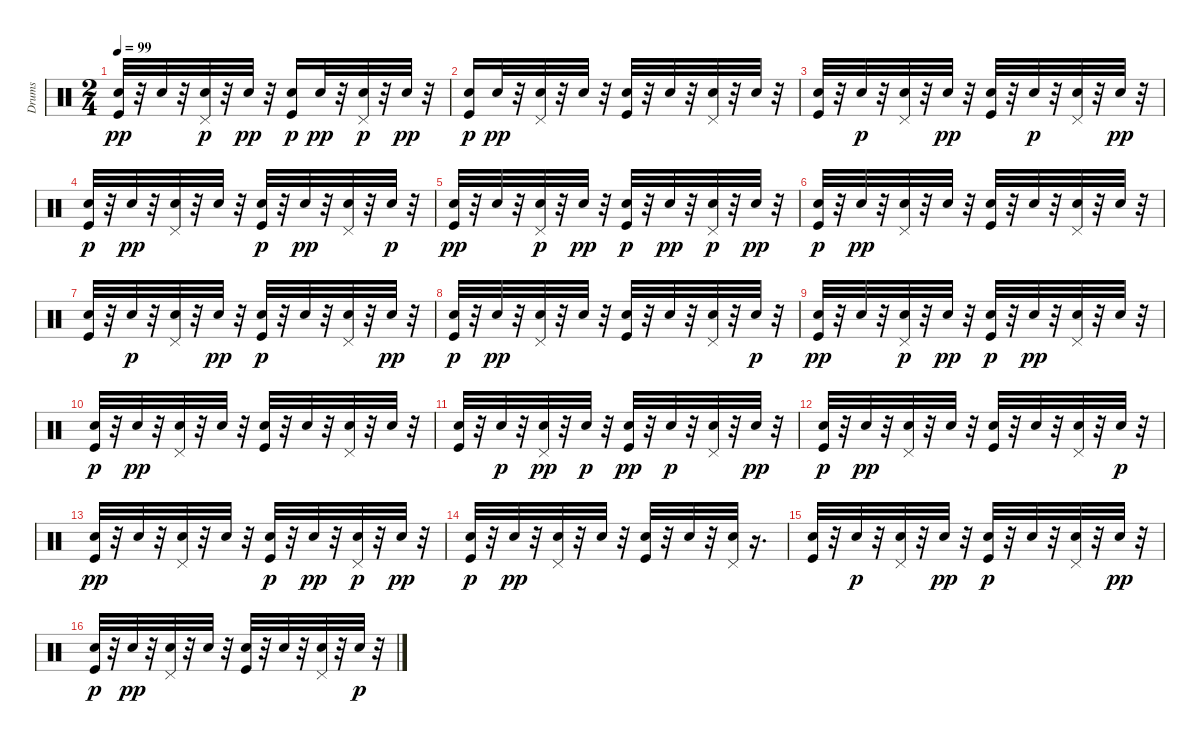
\track ("Drums" "Drums") {instrument percussion}
\staff {score}
\articulation defaults
\ts (2 4)
\tempo 99
\clef neutral
\ks c
("Kick (hit)" "Hand Clap (hit)").32{dy pp} r.32 "Snare (hit) 2".32 r.32 ("Pedal Hi-Hat (hit)" "Snare (hit) 2").32{dy p} r.32 "Snare (hit) 2".32{dy pp} r.32 ("Hand Clap (hit)" "Kick (hit)").16{dy p} "Snare (hit) 2".32{dy pp} r.32 ("Pedal Hi-Hat (hit)" "Snare (hit) 2").32{dy p} r.32 "Snare (hit) 2".32{dy pp} r.32 |
("Hand Clap (hit)" "Kick (hit)").16{dy p} "Snare (hit) 2".32{dy pp} r.32 ("Pedal Hi-Hat (hit)" "Snare (hit) 2").32 r.32 "Hand Clap (hit)".32 r.32 ("Kick (hit)" "Hand Clap (hit)").32 r.32 "Snare (hit) 2".32 r.32 ("Hand Clap (hit)" "Pedal Hi-Hat (hit)").32 r.32 "Hand Clap (hit)".32 r.32 |
("Kick (hit)" "Hand Clap (hit)").32 r.32 "Snare (hit) 2".32{dy p} r.32 ("Pedal Hi-Hat (hit)" "Snare (hit) 2").32 r.32 "Hand Clap (hit)".32{dy pp} r.32 ("Kick (hit)" "Snare (hit) 2").32 r.32 "Snare (hit) 2".32{dy p} r.32 ("Pedal Hi-Hat (hit)" "Snare (hit) 2").32 r.32 "Hand Clap (hit)".32{dy pp} r.32 |
("Hand Clap (hit)" "Kick (hit)").32{dy p} r.32 "Snare (hit) 2".32{dy pp} r.32 ("Pedal Hi-Hat (hit)" "Snare (hit) 2").32 r.32 "Hand Clap (hit)".32 r.32 ("Hand Clap (hit)" "Kick (hit)").32{dy p} r.32 "Snare (hit) 2".32{dy pp} r.32 ("Pedal Hi-Hat (hit)" "Hand Clap (hit)").32 r.32 "Snare (hit) 2".32{dy p} r.32 |
("Kick (hit)" "Hand Clap (hit)").32{dy pp} r.32 "Snare (hit) 2".32 r.32 ("Pedal Hi-Hat (hit)" "Snare (hit) 2").32{dy p} r.32 "Snare (hit) 2".32{dy pp} r.32 ("Hand Clap (hit)" "Kick (hit)").32{dy p} r.32 "Snare (hit) 2".32{dy pp} r.32 ("Pedal Hi-Hat (hit)" "Snare (hit) 2").32{dy p} r.32 "Snare (hit) 2".32{dy pp} r.32 |
("Hand Clap (hit)" "Kick (hit)").32{dy p} r.32 "Snare (hit) 2".32{dy pp} r.32 ("Pedal Hi-Hat (hit)" "Snare (hit) 2").32 r.32 "Hand Clap (hit)".32 r.32 ("Kick (hit)" "Hand Clap (hit)").32 r.32 "Snare (hit) 2".32 r.32 ("Hand Clap (hit)" "Pedal Hi-Hat (hit)").32 r.32 "Snare (hit) 2".32 r.32 |
("Kick (hit)" "Hand Clap (hit)").32 r.32 "Snare (hit) 2".32{dy p} r.32 ("Pedal Hi-Hat (hit)" "Snare (hit) 2").32 r.32 "Snare (hit) 2".32{dy pp} r.32 ("Hand Clap (hit)" "Kick (hit)").32{dy p} r.32 "Snare (hit) 2".32 r.32 ("Pedal Hi-Hat (hit)" "Snare (hit) 2").32 r.32 "Snare (hit) 2".32{dy pp} r.32 |
("Hand Clap (hit)" "Kick (hit)").32{dy p} r.32 "Snare (hit) 2".32{dy pp} r.32 ("Pedal Hi-Hat (hit)" "Snare (hit) 2").32 r.32 "Hand Clap (hit)".32 r.32 ("Kick (hit)" "Hand Clap (hit)").32 r.32 "Snare (hit) 2".32 r.32 ("Pedal Hi-Hat (hit)" "Hand Clap (hit)").32 r.32 "Snare (hit) 2".32{dy p} r.32 |
("Kick (hit)" "Hand Clap (hit)").32{dy pp} r.32 "Snare (hit) 2".32 r.32 ("Pedal Hi-Hat (hit)" "Snare (hit) 2").32{dy p} r.32 "Hand Clap (hit)".32{dy pp} r.32 ("Hand Clap (hit)" "Kick (hit)").32{dy p} r.32 "Snare (hit) 2".32{dy pp} r.32 ("Pedal Hi-Hat (hit)" "Hand Clap (hit)").32 r.32 "Snare (hit) 2".32 r.32 |
("Hand Clap (hit)" "Kick (hit)").32{dy p} r.32 "Snare (hit) 2".32{dy pp} r.32 ("Pedal Hi-Hat (hit)" "Snare (hit) 2").32 r.32 "Snare (hit) 2".32 r.32 ("Kick (hit)" "Hand Clap (hit)").32 r.32 "Snare (hit) 2".32 r.32 ("Hand Clap (hit)" "Pedal Hi-Hat (hit)").32 r.32 "Snare (hit) 2".32 r.32 |
("Kick (hit)" "Hand Clap (hit)").32 r.32 "Snare (hit) 2".32{dy p} r.32 ("Pedal Hi-Hat (hit)" "Snare (hit) 2").32{dy pp} r.32 "Hand Clap (hit)".32{dy p} r.32 ("Kick (hit)" "Snare (hit) 2").32{dy pp} r.32 "Snare (hit) 2".32{dy p} r.32 ("Pedal Hi-Hat (hit)" "Snare (hit) 2").32 r.32 "Snare (hit) 2".32{dy pp} r.32 |
("Hand Clap (hit)" "Kick (hit)").32{dy p} r.32 "Snare (hit) 2".32{dy pp} r.32 ("Pedal Hi-Hat (hit)" "Snare (hit) 2").32 r.32 "Hand Clap (hit)".32 r.32 ("Kick (hit)" "Hand Clap (hit)").32 r.32 "Snare (hit) 2".32 r.32 ("Pedal Hi-Hat (hit)" "Hand Clap (hit)").32 r.32 "Snare (hit) 2".32{dy p} r.32 |
("Kick (hit)" "Hand Clap (hit)").32{dy pp} r.32 "Snare (hit) 2".32 r.32 ("Pedal Hi-Hat (hit)" "Snare (hit) 2").32 r.32 "Hand Clap (hit)".32 r.32 ("Kick (hit)" "Snare (hit) 2").32{dy p} r.32 "Snare (hit) 2".32{dy pp} r.32 ("Pedal Hi-Hat (hit)" "Snare (hit) 2").32{dy p} r.32 "Snare (hit) 2".32{dy pp} r.32 |
("Hand Clap (hit)" "Kick (hit)").32{dy p} r.32 "Snare (hit) 2".32{dy pp} r.32 ("Pedal Hi-Hat (hit)" "Snare (hit) 2").32 r.32 "Hand Clap (hit)".32 r.32 ("Kick (hit)" "Hand Clap (hit)").32 r.32 "Snare (hit) 2".32 r.32 ("Hand Clap (hit)" "Pedal Hi-Hat (hit)").32 r.16{d} |
("Kick (hit)" "Hand Clap (hit)").32 r.32 "Snare (hit) 2".32{dy p} r.32 ("Pedal Hi-Hat (hit)" "Snare (hit) 2").32 r.32 "Snare (hit) 2".32{dy pp} r.32 ("Hand Clap (hit)" "Kick (hit)").32{dy p} r.32 "Snare (hit) 2".32 r.32 ("Pedal Hi-Hat (hit)" "Snare (hit) 2").32 r.32 "Snare (hit) 2".32{dy pp} r.32 |
("Hand Clap (hit)" "Kick (hit)").32{dy p} r.32 "Snare (hit) 2".32{dy pp} r.32 ("Pedal Hi-Hat (hit)" "Snare (hit) 2").32 r.32 "Hand Clap (hit)".32 r.32 ("Kick (hit)" "Hand Clap (hit)").32 r.32 "Snare (hit) 2".32 r.32 ("Pedal Hi-Hat (hit)" "Hand Clap (hit)").32 r.32 "Snare (hit) 2".32{dy p} r.32
